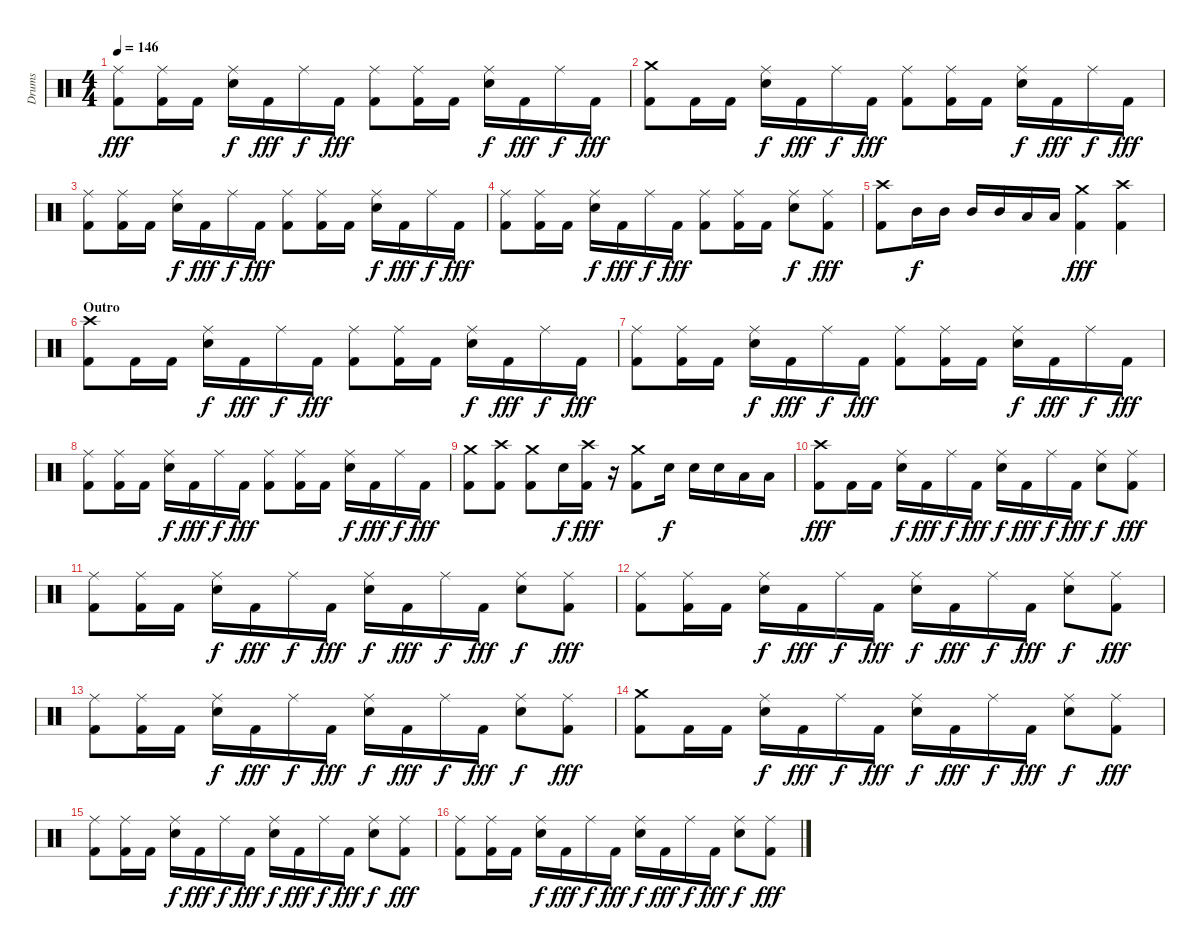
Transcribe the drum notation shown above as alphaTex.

\track ("Drums" "Drums") {instrument percussion}
\staff {score}
\articulation defaults
\ts (4 4)
\tempo 146
\clef neutral
\ks c
("Ride (middle)" "Kick (hit) 2").8{dy fff} ("Ride (middle)" "Kick (hit) 2").16 "Kick (hit) 2".16 ("Ride (middle)" "Snare (hit) 2").16{dy f} "Kick (hit) 2".16{dy fff} "Ride (middle)".16{dy f} "Kick (hit) 2".16{dy fff} ("Ride (middle)" "Kick (hit) 2").8 ("Ride (middle)" "Kick (hit) 2").16 "Kick (hit) 2".16 ("Ride (middle)" "Snare (hit) 2").16{dy f} "Kick (hit) 2".16{dy fff} "Ride (middle)".16{dy f} "Kick (hit) 2".16{dy fff} |
("Crash medium (hit)" "Kick (hit) 2").8 "Kick (hit) 2".16 "Kick (hit) 2".16 ("Ride (middle)" "Snare (hit) 2").16{dy f} "Kick (hit) 2".16{dy fff} "Ride (middle)".16{dy f} "Kick (hit) 2".16{dy fff} ("Ride (middle)" "Kick (hit) 2").8 ("Ride (middle)" "Kick (hit) 2").16 "Kick (hit) 2".16 ("Ride (middle)" "Snare (hit) 2").16{dy f} "Kick (hit) 2".16{dy fff} "Ride (middle)".16{dy f} "Kick (hit) 2".16{dy fff} |
("Ride (middle)" "Kick (hit) 2").8 ("Ride (middle)" "Kick (hit) 2").16 "Kick (hit) 2".16 ("Ride (middle)" "Snare (hit) 2").16{dy f} "Kick (hit) 2".16{dy fff} "Ride (middle)".16{dy f} "Kick (hit) 2".16{dy fff} ("Ride (middle)" "Kick (hit) 2").8 ("Ride (middle)" "Kick (hit) 2").16 "Kick (hit) 2".16 ("Ride (middle)" "Snare (hit) 2").16{dy f} "Kick (hit) 2".16{dy fff} "Ride (middle)".16{dy f} "Kick (hit) 2".16{dy fff} |
("Ride (middle)" "Kick (hit) 2").8 ("Ride (middle)" "Kick (hit) 2").16 "Kick (hit) 2".16 ("Ride (middle)" "Snare (hit) 2").16{dy f} "Kick (hit) 2".16{dy fff} "Ride (middle)".16{dy f} "Kick (hit) 2".16{dy fff} ("Ride (middle)" "Kick (hit) 2").8 ("Ride (middle)" "Kick (hit) 2").16 "Kick (hit) 2".16 ("Ride (middle)" "Snare (hit) 2").8{dy f} ("Ride (middle)" "Kick (hit) 2").8{dy fff} |
("Crash high (hit)" "Kick (hit) 2").8 "Mid Tom (hit)".16{dy f} "Mid Tom (hit)".16 "Mid Tom (hit)".16 "Mid Tom (hit)".16 "Low Tom (hit)".16 "Low Tom (hit)".16 ("Crash medium (hit)" "Kick (hit) 2").4{dy fff} ("Crash high (hit)" "Kick (hit) 2").4 |
\section ("" "Outro")
("Crash high (hit)" "Kick (hit) 2").8 "Kick (hit) 2".16 "Kick (hit) 2".16 ("Ride (middle)" "Snare (hit) 2").16{dy f} "Kick (hit) 2".16{dy fff} "Ride (middle)".16{dy f} "Kick (hit) 2".16{dy fff} ("Ride (middle)" "Kick (hit) 2").8 ("Ride (middle)" "Kick (hit) 2").16 "Kick (hit) 2".16 ("Ride (middle)" "Snare (hit) 2").16{dy f} "Kick (hit) 2".16{dy fff} "Ride (middle)".16{dy f} "Kick (hit) 2".16{dy fff} |
("Ride (middle)" "Kick (hit) 2").8 ("Ride (middle)" "Kick (hit) 2").16 "Kick (hit) 2".16 ("Ride (middle)" "Snare (hit) 2").16{dy f} "Kick (hit) 2".16{dy fff} "Ride (middle)".16{dy f} "Kick (hit) 2".16{dy fff} ("Ride (middle)" "Kick (hit) 2").8 ("Ride (middle)" "Kick (hit) 2").16 "Kick (hit) 2".16 ("Ride (middle)" "Snare (hit) 2").16{dy f} "Kick (hit) 2".16{dy fff} "Ride (middle)".16{dy f} "Kick (hit) 2".16{dy fff} |
("Ride (middle)" "Kick (hit) 2").8 ("Ride (middle)" "Kick (hit) 2").16 "Kick (hit) 2".16 ("Ride (middle)" "Snare (hit) 2").16{dy f} "Kick (hit) 2".16{dy fff} "Ride (middle)".16{dy f} "Kick (hit) 2".16{dy fff} ("Ride (middle)" "Kick (hit) 2").8 ("Ride (middle)" "Kick (hit) 2").16 "Kick (hit) 2".16 ("Ride (middle)" "Snare (hit) 2").16{dy f} "Kick (hit) 2".16{dy fff} "Ride (middle)".16{dy f} "Kick (hit) 2".16{dy fff} |
("Crash medium (hit)" "Kick (hit) 2").8 ("Crash high (hit)" "Kick (hit) 2").8 ("Crash medium (hit)" "Kick (hit) 2").8 "Snare (hit) 2".16{dy f} ("Crash high (hit)" "Kick (hit) 2").16{dy fff} r.16 ("Crash medium (hit)" "Kick (hit) 2").8 "Snare (hit) 2".16{dy f} "Snare (hit) 2".16 "Snare (hit) 2".16 "Low Tom (hit)".16 "Low Tom (hit)".16 |
("Crash high (hit)" "Kick (hit) 2").8{dy fff} "Kick (hit) 2".16 "Kick (hit) 2".16 ("Ride (middle)" "Snare (hit) 2").16{dy f} "Kick (hit) 2".16{dy fff} "Ride (middle)".16{dy f} "Kick (hit) 2".16{dy fff} ("Ride (middle)" "Snare (hit) 2").16{dy f} "Kick (hit) 2".16{dy fff} "Ride (middle)".16{dy f} "Kick (hit) 2".16{dy fff} ("Ride (middle)" "Snare (hit) 2").8{dy f} ("Ride (middle)" "Kick (hit) 2").8{dy fff} |
("Ride (middle)" "Kick (hit) 2").8 ("Ride (middle)" "Kick (hit) 2").16 "Kick (hit) 2".16 ("Ride (middle)" "Snare (hit) 2").16{dy f} "Kick (hit) 2".16{dy fff} "Ride (middle)".16{dy f} "Kick (hit) 2".16{dy fff} ("Ride (middle)" "Snare (hit) 2").16{dy f} "Kick (hit) 2".16{dy fff} "Ride (middle)".16{dy f} "Kick (hit) 2".16{dy fff} ("Ride (middle)" "Snare (hit) 2").8{dy f} ("Ride (middle)" "Kick (hit) 2").8{dy fff} |
("Ride (middle)" "Kick (hit) 2").8 ("Ride (middle)" "Kick (hit) 2").16 "Kick (hit) 2".16 ("Ride (middle)" "Snare (hit) 2").16{dy f} "Kick (hit) 2".16{dy fff} "Ride (middle)".16{dy f} "Kick (hit) 2".16{dy fff} ("Ride (middle)" "Snare (hit) 2").16{dy f} "Kick (hit) 2".16{dy fff} "Ride (middle)".16{dy f} "Kick (hit) 2".16{dy fff} ("Ride (middle)" "Snare (hit) 2").8{dy f} ("Ride (middle)" "Kick (hit) 2").8{dy fff} |
("Ride (middle)" "Kick (hit) 2").8 ("Ride (middle)" "Kick (hit) 2").16 "Kick (hit) 2".16 ("Ride (middle)" "Snare (hit) 2").16{dy f} "Kick (hit) 2".16{dy fff} "Ride (middle)".16{dy f} "Kick (hit) 2".16{dy fff} ("Ride (middle)" "Snare (hit) 2").16{dy f} "Kick (hit) 2".16{dy fff} "Ride (middle)".16{dy f} "Kick (hit) 2".16{dy fff} ("Ride (middle)" "Snare (hit) 2").8{dy f} ("Ride (middle)" "Kick (hit) 2").8{dy fff} |
("Crash medium (hit)" "Kick (hit) 2").8 "Kick (hit) 2".16 "Kick (hit) 2".16 ("Ride (middle)" "Snare (hit) 2").16{dy f} "Kick (hit) 2".16{dy fff} "Ride (middle)".16{dy f} "Kick (hit) 2".16{dy fff} ("Ride (middle)" "Snare (hit) 2").16{dy f} "Kick (hit) 2".16{dy fff} "Ride (middle)".16{dy f} "Kick (hit) 2".16{dy fff} ("Ride (middle)" "Snare (hit) 2").8{dy f} ("Ride (middle)" "Kick (hit) 2").8{dy fff} |
("Ride (middle)" "Kick (hit) 2").8 ("Ride (middle)" "Kick (hit) 2").16 "Kick (hit) 2".16 ("Ride (middle)" "Snare (hit) 2").16{dy f} "Kick (hit) 2".16{dy fff} "Ride (middle)".16{dy f} "Kick (hit) 2".16{dy fff} ("Ride (middle)" "Snare (hit) 2").16{dy f} "Kick (hit) 2".16{dy fff} "Ride (middle)".16{dy f} "Kick (hit) 2".16{dy fff} ("Ride (middle)" "Snare (hit) 2").8{dy f} ("Ride (middle)" "Kick (hit) 2").8{dy fff} |
("Ride (middle)" "Kick (hit) 2").8 ("Ride (middle)" "Kick (hit) 2").16 "Kick (hit) 2".16 ("Ride (middle)" "Snare (hit) 2").16{dy f} "Kick (hit) 2".16{dy fff} "Ride (middle)".16{dy f} "Kick (hit) 2".16{dy fff} ("Ride (middle)" "Snare (hit) 2").16{dy f} "Kick (hit) 2".16{dy fff} "Ride (middle)".16{dy f} "Kick (hit) 2".16{dy fff} ("Ride (middle)" "Snare (hit) 2").8{dy f} ("Ride (middle)" "Kick (hit) 2").8{dy fff}
